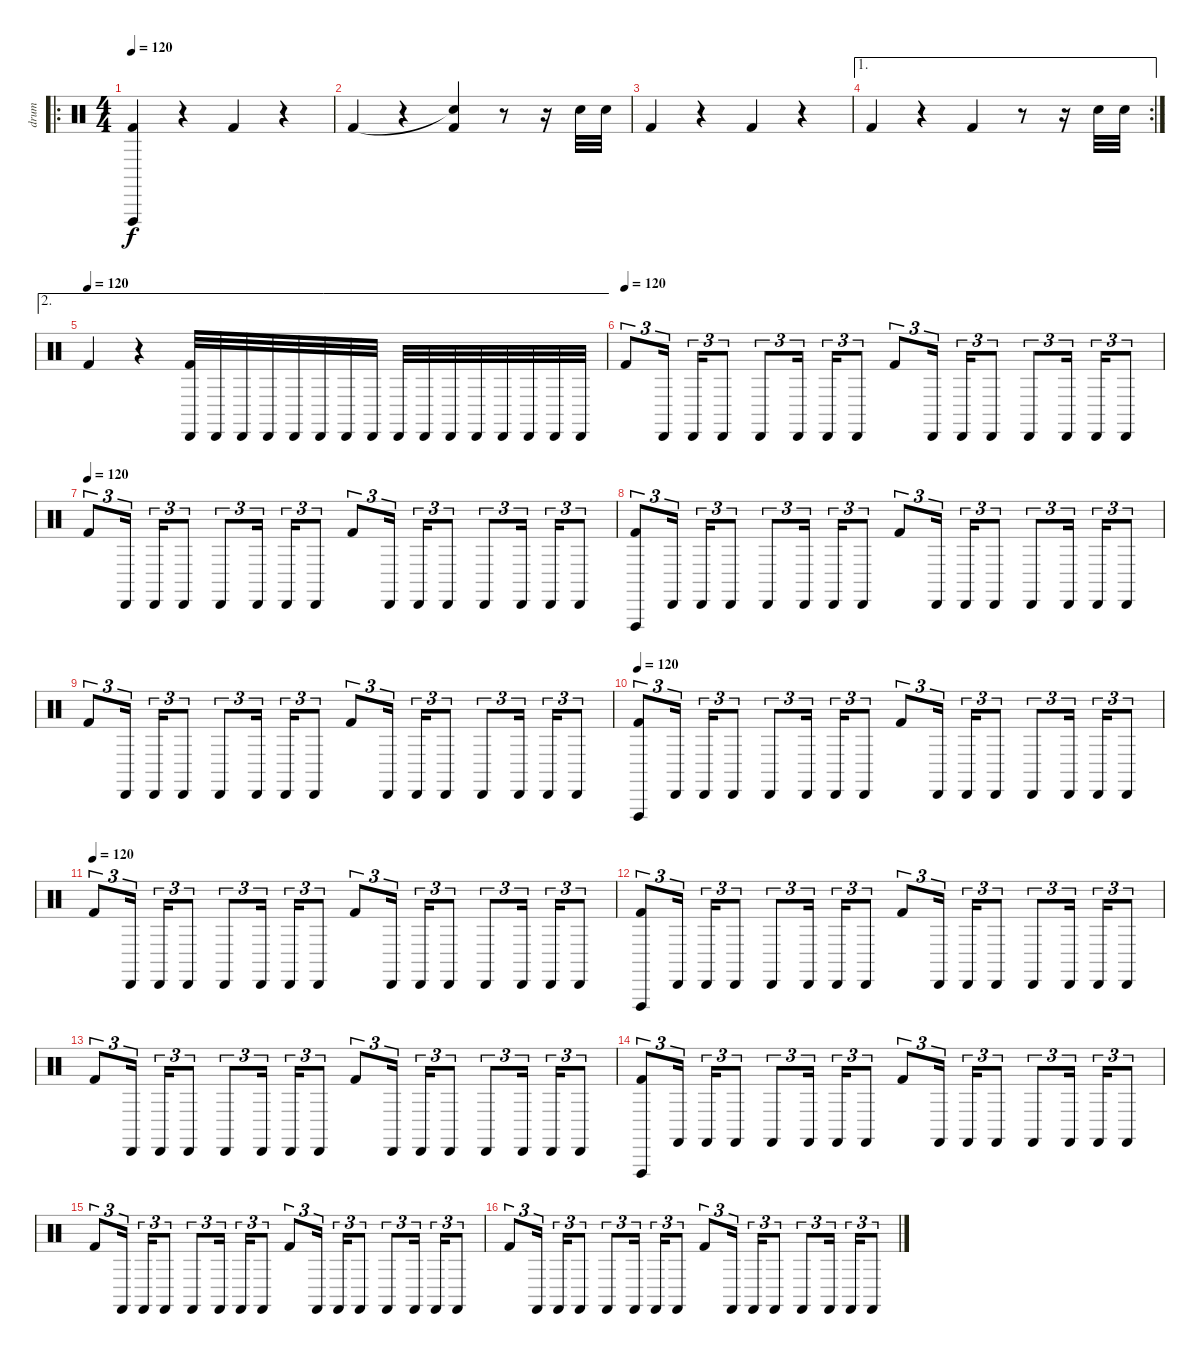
\track ("drum" "drum") {instrument percussion}
\staff {score}
\articulation defaults
\ro
\ts (4 4)
\tempo 120
\tempo 100
\tempo 120
\clef neutral
\ks c
("Vibraslap (hit)" "Kick (hit) 2").4{dy f} r.4 "Kick (hit) 2".4 r.4 |
"Kick (hit) 2".4 r.4 ("Snare (hit)"{t} "Kick (hit) 2").4 r.8 r.16 "Snare (hit) 2".32 "Snare (hit) 2".32 |
"Kick (hit) 2".4 r.4 "Kick (hit) 2".4 r.4 |
\ae 1
\rc 2 "Kick (hit) 2".4
r.4 "Kick (hit) 2".4 r.8 r.16 "Snare (hit) 2".32 "Snare (hit) 2".32 |
\ae 2
\tempo (120)
"Kick (hit) 2".4 r.4 ("Cabasa (hit)" "Kick (hit) 2").32 "Cabasa (hit)".32 "Cabasa (hit)".32 "Cabasa (hit)".32 "Cabasa (hit)".32 "Cabasa (hit)".32 "Cabasa (hit)".32 "Cabasa (hit)".32 "Cabasa (hit)".32 "Cabasa (hit)".32 "Cabasa (hit)".32 "Cabasa (hit)".32 "Cabasa (hit)".32 "Cabasa (hit)".32 "Cabasa (hit)".32 "Cabasa (hit)".32 |
\tempo (120)
"Kick (hit) 2".8{tu (3 2)} "Cabasa (hit)".16{tu (3 2)} "Cabasa (hit)".16{tu (3 2)} "Cabasa (hit)".8{tu (3 2)} "Cabasa (hit)".8{tu (3 2)} "Cabasa (hit)".16{tu (3 2)} "Cabasa (hit)".16{tu (3 2)} "Cabasa (hit)".8{tu (3 2)} "Kick (hit) 2".8{tu (3 2)} "Cabasa (hit)".16{tu (3 2)} "Cabasa (hit)".16{tu (3 2)} "Cabasa (hit)".8{tu (3 2)} "Cabasa (hit)".8{tu (3 2)} "Cabasa (hit)".16{tu (3 2)} "Cabasa (hit)".16{tu (3 2)} "Cabasa (hit)".8{tu (3 2)} |
\tempo (120)
"Kick (hit) 2".8{tu (3 2)} "Cabasa (hit)".16{tu (3 2)} "Cabasa (hit)".16{tu (3 2)} "Cabasa (hit)".8{tu (3 2)} "Cabasa (hit)".8{tu (3 2)} "Cabasa (hit)".16{tu (3 2)} "Cabasa (hit)".16{tu (3 2)} "Cabasa (hit)".8{tu (3 2)} "Kick (hit) 2".8{tu (3 2)} "Cabasa (hit)".16{tu (3 2)} "Cabasa (hit)".16{tu (3 2)} "Cabasa (hit)".8{tu (3 2)} "Cabasa (hit)".8{tu (3 2)} "Cabasa (hit)".16{tu (3 2)} "Cabasa (hit)".16{tu (3 2)} "Cabasa (hit)".8{tu (3 2)} |
("Vibraslap (hit)" "Kick (hit) 2").8{tu (3 2)} "Cabasa (hit)".16{tu (3 2)} "Cabasa (hit)".16{tu (3 2)} "Cabasa (hit)".8{tu (3 2)} "Cabasa (hit)".8{tu (3 2)} "Cabasa (hit)".16{tu (3 2)} "Cabasa (hit)".16{tu (3 2)} "Cabasa (hit)".8{tu (3 2)} "Kick (hit) 2".8{tu (3 2)} "Cabasa (hit)".16{tu (3 2)} "Cabasa (hit)".16{tu (3 2)} "Cabasa (hit)".8{tu (3 2)} "Cabasa (hit)".8{tu (3 2)} "Cabasa (hit)".16{tu (3 2)} "Cabasa (hit)".16{tu (3 2)} "Cabasa (hit)".8{tu (3 2)} |
"Kick (hit) 2".8{tu (3 2)} "Cabasa (hit)".16{tu (3 2)} "Cabasa (hit)".16{tu (3 2)} "Cabasa (hit)".8{tu (3 2)} "Cabasa (hit)".8{tu (3 2)} "Cabasa (hit)".16{tu (3 2)} "Cabasa (hit)".16{tu (3 2)} "Cabasa (hit)".8{tu (3 2)} "Kick (hit) 2".8{tu (3 2)} "Cabasa (hit)".16{tu (3 2)} "Cabasa (hit)".16{tu (3 2)} "Cabasa (hit)".8{tu (3 2)} "Cabasa (hit)".8{tu (3 2)} "Cabasa (hit)".16{tu (3 2)} "Cabasa (hit)".16{tu (3 2)} "Cabasa (hit)".8{tu (3 2)} |
\tempo 120
("Vibraslap (hit)" "Kick (hit) 2").8{tu (3 2)} "Cabasa (hit)".16{tu (3 2)} "Cabasa (hit)".16{tu (3 2)} "Cabasa (hit)".8{tu (3 2)} "Cabasa (hit)".8{tu (3 2)} "Cabasa (hit)".16{tu (3 2)} "Cabasa (hit)".16{tu (3 2)} "Cabasa (hit)".8{tu (3 2)} "Kick (hit) 2".8{tu (3 2)} "Cabasa (hit)".16{tu (3 2)} "Cabasa (hit)".16{tu (3 2)} "Cabasa (hit)".8{tu (3 2)} "Cabasa (hit)".8{tu (3 2)} "Cabasa (hit)".16{tu (3 2)} "Cabasa (hit)".16{tu (3 2)} "Cabasa (hit)".8{tu (3 2)} |
\tempo (120)
"Kick (hit) 2".8{tu (3 2)} "Cabasa (hit)".16{tu (3 2)} "Cabasa (hit)".16{tu (3 2)} "Cabasa (hit)".8{tu (3 2)} "Cabasa (hit)".8{tu (3 2)} "Cabasa (hit)".16{tu (3 2)} "Cabasa (hit)".16{tu (3 2)} "Cabasa (hit)".8{tu (3 2)} "Kick (hit) 2".8{tu (3 2)} "Cabasa (hit)".16{tu (3 2)} "Cabasa (hit)".16{tu (3 2)} "Cabasa (hit)".8{tu (3 2)} "Cabasa (hit)".8{tu (3 2)} "Cabasa (hit)".16{tu (3 2)} "Cabasa (hit)".16{tu (3 2)} "Cabasa (hit)".8{tu (3 2)} |
("Vibraslap (hit)" "Kick (hit) 2").8{tu (3 2)} "Cabasa (hit)".16{tu (3 2)} "Cabasa (hit)".16{tu (3 2)} "Cabasa (hit)".8{tu (3 2)} "Cabasa (hit)".8{tu (3 2)} "Cabasa (hit)".16{tu (3 2)} "Cabasa (hit)".16{tu (3 2)} "Cabasa (hit)".8{tu (3 2)} "Kick (hit) 2".8{tu (3 2)} "Cabasa (hit)".16{tu (3 2)} "Cabasa (hit)".16{tu (3 2)} "Cabasa (hit)".8{tu (3 2)} "Cabasa (hit)".8{tu (3 2)} "Cabasa (hit)".16{tu (3 2)} "Cabasa (hit)".16{tu (3 2)} "Cabasa (hit)".8{tu (3 2)} |
"Kick (hit) 2".8{tu (3 2)} "Cabasa (hit)".16{tu (3 2)} "Cabasa (hit)".16{tu (3 2)} "Cabasa (hit)".8{tu (3 2)} "Cabasa (hit)".8{tu (3 2)} "Cabasa (hit)".16{tu (3 2)} "Cabasa (hit)".16{tu (3 2)} "Cabasa (hit)".8{tu (3 2)} "Kick (hit) 2".8{tu (3 2)} "Cabasa (hit)".16{tu (3 2)} "Cabasa (hit)".16{tu (3 2)} "Cabasa (hit)".8{tu (3 2)} "Cabasa (hit)".8{tu (3 2)} "Cabasa (hit)".16{tu (3 2)} "Cabasa (hit)".16{tu (3 2)} "Cabasa (hit)".8{tu (3 2)} |
("Vibraslap (hit)" "Kick (hit) 2").8{tu (3 2)} "Castanets (hit)".16{tu (3 2)} "Castanets (hit)".16{tu (3 2)} "Castanets (hit)".8{tu (3 2)} "Castanets (hit)".8{tu (3 2)} "Castanets (hit)".16{tu (3 2)} "Castanets (hit)".16{tu (3 2)} "Castanets (hit)".8{tu (3 2)} "Kick (hit) 2".8{tu (3 2)} "Castanets (hit)".16{tu (3 2)} "Castanets (hit)".16{tu (3 2)} "Castanets (hit)".8{tu (3 2)} "Castanets (hit)".8{tu (3 2)} "Castanets (hit)".16{tu (3 2)} "Castanets (hit)".16{tu (3 2)} "Castanets (hit)".8{tu (3 2)} |
"Kick (hit) 2".8{tu (3 2)} "Castanets (hit)".16{tu (3 2)} "Castanets (hit)".16{tu (3 2)} "Castanets (hit)".8{tu (3 2)} "Castanets (hit)".8{tu (3 2)} "Castanets (hit)".16{tu (3 2)} "Castanets (hit)".16{tu (3 2)} "Castanets (hit)".8{tu (3 2)} "Kick (hit) 2".8{tu (3 2)} "Castanets (hit)".16{tu (3 2)} "Castanets (hit)".16{tu (3 2)} "Castanets (hit)".8{tu (3 2)} "Castanets (hit)".8{tu (3 2)} "Castanets (hit)".16{tu (3 2)} "Castanets (hit)".16{tu (3 2)} "Castanets (hit)".8{tu (3 2)} |
"Kick (hit) 2".8{tu (3 2)} "Castanets (hit)".16{tu (3 2)} "Castanets (hit)".16{tu (3 2)} "Castanets (hit)".8{tu (3 2)} "Castanets (hit)".8{tu (3 2)} "Castanets (hit)".16{tu (3 2)} "Castanets (hit)".16{tu (3 2)} "Castanets (hit)".8{tu (3 2)} "Kick (hit) 2".8{tu (3 2)} "Castanets (hit)".16{tu (3 2)} "Castanets (hit)".16{tu (3 2)} "Castanets (hit)".8{tu (3 2)} "Castanets (hit)".8{tu (3 2)} "Castanets (hit)".16{tu (3 2)} "Castanets (hit)".16{tu (3 2)} "Castanets (hit)".8{tu (3 2)}
